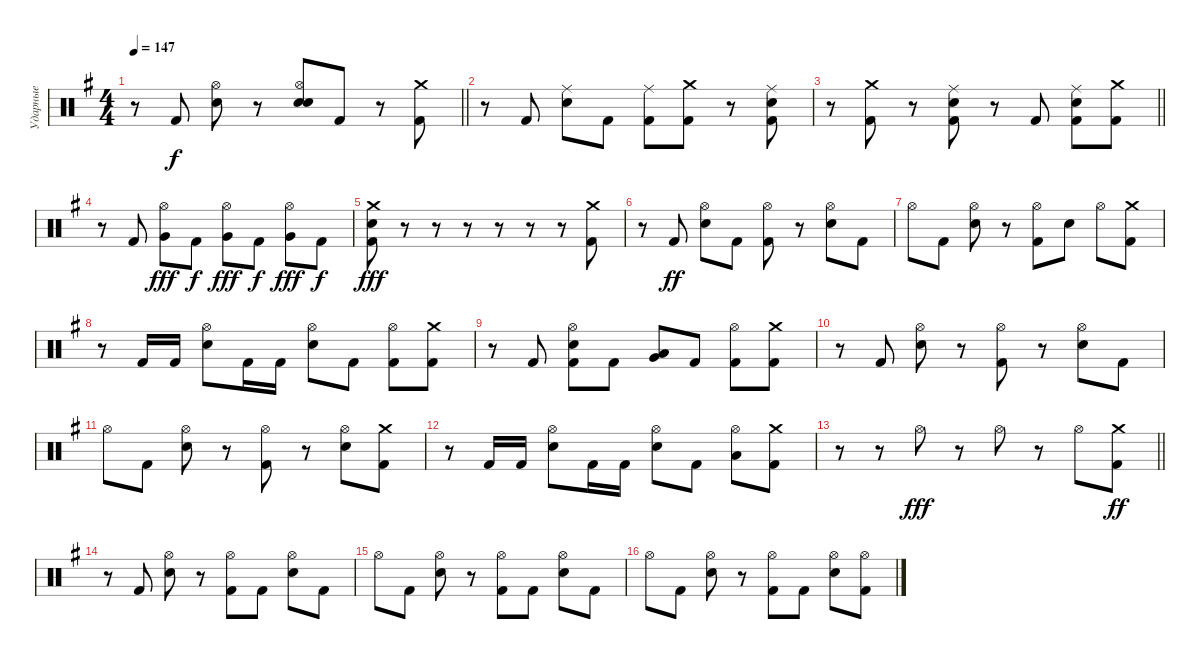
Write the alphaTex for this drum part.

\track ("Ударные" "Ударные") {instrument percussion}
\staff {score}
\articulation defaults
\ts (4 4)
\tempo 147
\clef neutral
\barLineRight lightlight
\ks eminor
r.8{dy f} "Kick (hit) 2".8 ("Electric Snare (hit)" "Hi-Hat (open)").8 r.8 ("Snare (hit) 2" "Electric Snare (hit)" "Hi-Hat (open)").8 "Kick (hit) 2".8 r.8 ("Kick (hit) 2" "Crash medium (hit)").8 |
r.8 "Kick (hit) 2".8 ("Electric Snare (hit)" "Ride (middle)").8 "Kick (hit) 2".8 ("Kick (hit) 2" "Ride (middle)").8 ("Kick (hit) 2" "Crash medium (hit)").8 r.8 ("Kick (hit) 2" "Electric Snare (hit)" "Ride (middle)").8 |
\barLineRight lightlight
r.8 ("Kick (hit) 2" "Crash medium (hit)").8 r.8 ("Kick (hit) 2" "Electric Snare (hit)" "Ride (middle)").8 r.8 "Kick (hit) 2".8 ("Kick (hit) 2" "Electric Snare (hit)" "Ride (middle)").8 ("Kick (hit) 2" "Crash medium (hit)").8 |
r.8 "Kick (hit) 2".8 ("Very Low Tom (hit)" "Hi-Hat (open)").8{dy fff} "Kick (hit) 2".8{dy f} ("Very Low Tom (hit)" "Hi-Hat (open)").8{dy fff} "Kick (hit) 2".8{dy f} ("Very Low Tom (hit)" "Hi-Hat (open)").8{dy fff} "Kick (hit) 2".8{dy f} |
("Crash medium (hit)" "Electric Snare (hit)" "Kick (hit) 2").8{dy fff} r.8 r.8 r.8 r.8 r.8 r.8 ("Kick (hit) 2" "Crash medium (hit)").8 |
r.8 "Kick (hit) 2".8{dy ff} ("Electric Snare (hit)" "Hi-Hat (open)").8 "Kick (hit) 2".8 ("Kick (hit) 2" "Hi-Hat (open)").8 r.8 ("Electric Snare (hit)" "Hi-Hat (open)").8 "Kick (hit) 2".8 |
"Hi-Hat (open)".8 "Kick (hit) 2".8 ("Electric Snare (hit)" "Hi-Hat (open)").8 r.8 ("Kick (hit) 2" "Hi-Hat (open)").8 "Electric Snare (hit)".8 "Hi-Hat (open)".8 ("Kick (hit) 2" "Crash medium (hit)").8 |
r.8 "Kick (hit) 2".16 "Kick (hit) 2".16 ("Electric Snare (hit)" "Hi-Hat (open)").8 "Kick (hit) 2".16 "Kick (hit) 2".16 ("Electric Snare (hit)" "Hi-Hat (open)").8 "Kick (hit) 2".8 ("Kick (hit) 2" "Hi-Hat (open)").8 ("Kick (hit) 2" "Crash medium (hit)").8 |
r.8 "Kick (hit) 2".8 ("Kick (hit) 2" "Electric Snare (hit)" "Hi-Hat (open)").8 "Kick (hit) 2".8 ("Low Tom (hit)" "Very Low Tom (hit)").8 "Kick (hit) 2".8 ("Kick (hit) 2" "Hi-Hat (open)").8 ("Kick (hit) 2" "Crash medium (hit)").8 |
r.8 "Kick (hit) 2".8 ("Electric Snare (hit)" "Hi-Hat (open)").8 r.8 ("Kick (hit) 2" "Hi-Hat (open)").8 r.8 ("Electric Snare (hit)" "Hi-Hat (open)").8 "Kick (hit) 2".8 |
"Hi-Hat (open)".8 "Kick (hit) 2".8 ("Electric Snare (hit)" "Hi-Hat (open)").8 r.8 ("Kick (hit) 2" "Hi-Hat (open)").8 r.8 ("Electric Snare (hit)" "Hi-Hat (open)").8 ("Kick (hit) 2" "Crash medium (hit)").8 |
r.8 "Kick (hit) 2".16 "Kick (hit) 2".16 ("Electric Snare (hit)" "Hi-Hat (open)").8 "Kick (hit) 2".16 "Kick (hit) 2".16 ("Electric Snare (hit)" "Hi-Hat (open)").8 "Kick (hit) 2".8 ("Low Tom (hit)" "Hi-Hat (open)").8 ("Kick (hit) 2" "Crash medium (hit)").8 |
\barLineRight lightlight
r.8 r.8 "Hi-Hat (open)".8{dy fff} r.8 "Hi-Hat (open)".8 r.8 "Hi-Hat (open)".8 ("Kick (hit) 2" "Crash medium (hit)").8{dy ff} |
r.8 "Kick (hit) 2".8 ("Electric Snare (hit)" "Hi-Hat (open)").8 r.8 ("Kick (hit) 2" "Hi-Hat (open)").8 "Kick (hit) 2".8 ("Electric Snare (hit)" "Hi-Hat (open)").8 "Kick (hit) 2".8 |
"Hi-Hat (open)".8 "Kick (hit) 2".8 ("Electric Snare (hit)" "Hi-Hat (open)").8 r.8 ("Kick (hit) 2" "Hi-Hat (open)").8 "Kick (hit) 2".8 ("Electric Snare (hit)" "Hi-Hat (open)").8 "Kick (hit) 2".8 |
"Hi-Hat (open)".8 "Kick (hit) 2".8 ("Electric Snare (hit)" "Hi-Hat (open)").8 r.8 ("Kick (hit) 2" "Hi-Hat (open)").8 "Kick (hit) 2".8 ("Electric Snare (hit)" "Hi-Hat (open)").8 ("Kick (hit) 2" "Hi-Hat (open)").8
